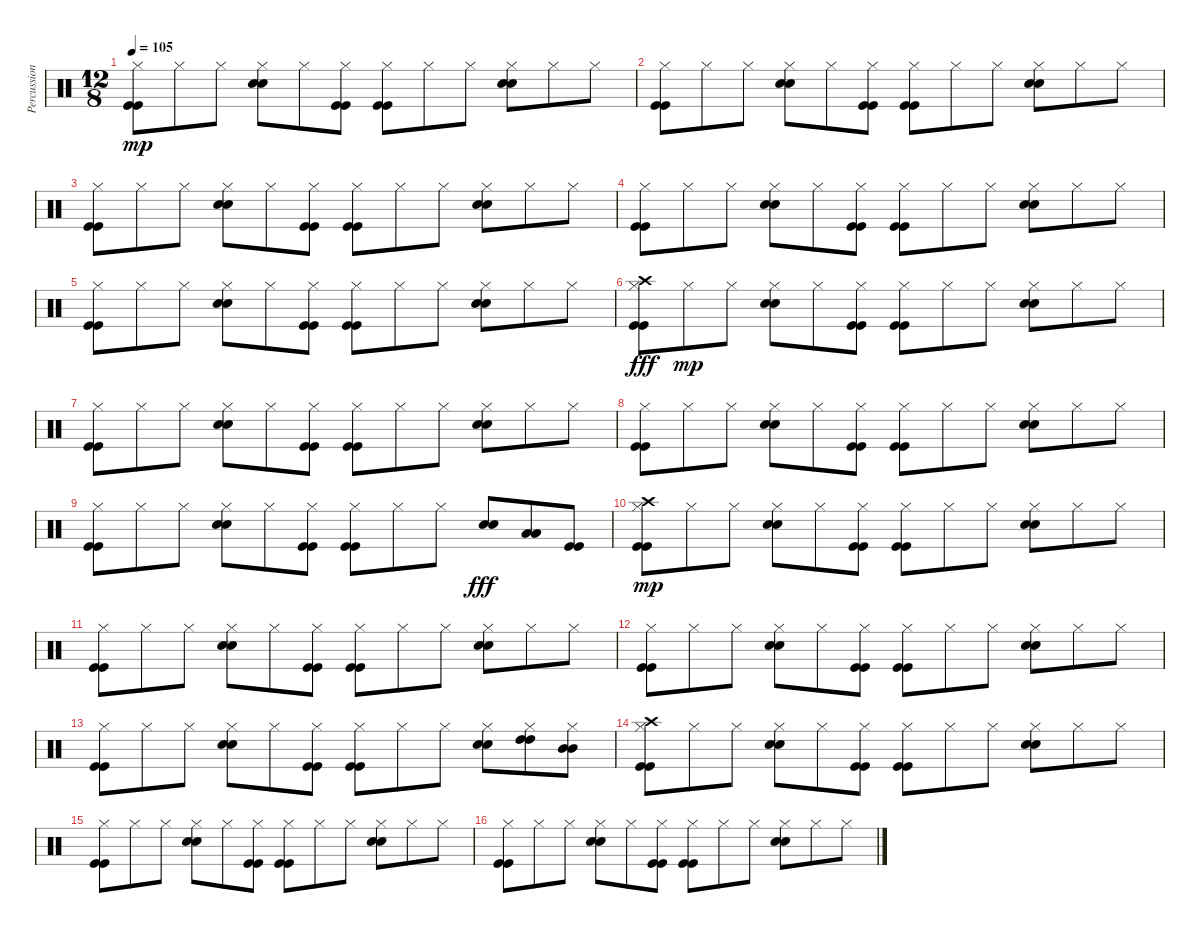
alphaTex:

\track ("Percussion" "Percussion") {instrument percussion}
\staff {score}
\articulation defaults
\ts (12 8)
\tempo 105
\clef neutral
\ks c
("Kick (hit)" "Kick (hit)" "Hi-Hat (closed)").8{dy mp} "Hi-Hat (closed)".8 "Hi-Hat (closed)".8 ("Snare (hit) 2" "Snare (hit) 2" "Hi-Hat (closed)").8 "Hi-Hat (closed)".8 ("Kick (hit)" "Kick (hit)" "Hi-Hat (closed)").8 ("Kick (hit)" "Kick (hit)" "Hi-Hat (closed)").8 "Hi-Hat (closed)".8 "Hi-Hat (closed)".8 ("Snare (hit) 2" "Snare (hit) 2" "Hi-Hat (closed)").8 "Hi-Hat (closed)".8 "Hi-Hat (closed)".8 |
("Kick (hit)" "Kick (hit)" "Hi-Hat (closed)").8 "Hi-Hat (closed)".8 "Hi-Hat (closed)".8 ("Snare (hit) 2" "Snare (hit) 2" "Hi-Hat (closed)").8 "Hi-Hat (closed)".8 ("Kick (hit)" "Kick (hit)" "Hi-Hat (closed)").8 ("Kick (hit)" "Kick (hit)" "Hi-Hat (closed)").8 "Hi-Hat (closed)".8 "Hi-Hat (closed)".8 ("Snare (hit) 2" "Snare (hit) 2" "Hi-Hat (closed)").8 "Hi-Hat (closed)".8 "Hi-Hat (closed)".8 |
("Kick (hit)" "Kick (hit)" "Hi-Hat (closed)").8 "Hi-Hat (closed)".8 "Hi-Hat (closed)".8 ("Snare (hit) 2" "Snare (hit) 2" "Hi-Hat (closed)").8 "Hi-Hat (closed)".8 ("Kick (hit)" "Kick (hit)" "Hi-Hat (closed)").8 ("Kick (hit)" "Kick (hit)" "Hi-Hat (closed)").8 "Hi-Hat (closed)".8 "Hi-Hat (closed)".8 ("Snare (hit) 2" "Snare (hit) 2" "Hi-Hat (closed)").8 "Hi-Hat (closed)".8 "Hi-Hat (closed)".8 |
("Kick (hit)" "Kick (hit)" "Hi-Hat (closed)").8 "Hi-Hat (closed)".8 "Hi-Hat (closed)".8 ("Snare (hit) 2" "Snare (hit) 2" "Hi-Hat (closed)").8 "Hi-Hat (closed)".8 ("Kick (hit)" "Kick (hit)" "Hi-Hat (closed)").8 ("Kick (hit)" "Kick (hit)" "Hi-Hat (closed)").8 "Hi-Hat (closed)".8 "Hi-Hat (closed)".8 ("Snare (hit) 2" "Snare (hit) 2" "Hi-Hat (closed)").8 "Hi-Hat (closed)".8 "Hi-Hat (closed)".8 |
("Kick (hit)" "Kick (hit)" "Hi-Hat (closed)").8 "Hi-Hat (closed)".8 "Hi-Hat (closed)".8 ("Snare (hit) 2" "Snare (hit) 2" "Hi-Hat (closed)").8 "Hi-Hat (closed)".8 ("Kick (hit)" "Kick (hit)" "Hi-Hat (closed)").8 ("Kick (hit)" "Kick (hit)" "Hi-Hat (closed)").8 "Hi-Hat (closed)".8 "Hi-Hat (closed)".8 ("Snare (hit) 2" "Snare (hit) 2" "Hi-Hat (closed)").8 "Hi-Hat (closed)".8 "Hi-Hat (closed)".8 |
("Kick (hit)" "Kick (hit)" "Hi-Hat (closed)" "Crash high (hit)").8{dy fff} "Hi-Hat (closed)".8{dy mp} "Hi-Hat (closed)".8 ("Snare (hit) 2" "Snare (hit) 2" "Hi-Hat (closed)").8 "Hi-Hat (closed)".8 ("Kick (hit)" "Kick (hit)" "Hi-Hat (closed)").8 ("Kick (hit)" "Kick (hit)" "Hi-Hat (closed)").8 "Hi-Hat (closed)".8 "Hi-Hat (closed)".8 ("Snare (hit) 2" "Snare (hit) 2" "Hi-Hat (closed)").8 "Hi-Hat (closed)".8 "Hi-Hat (closed)".8 |
("Kick (hit)" "Kick (hit)" "Hi-Hat (closed)").8 "Hi-Hat (closed)".8 "Hi-Hat (closed)".8 ("Snare (hit) 2" "Snare (hit) 2" "Hi-Hat (closed)").8 "Hi-Hat (closed)".8 ("Kick (hit)" "Kick (hit)" "Hi-Hat (closed)").8 ("Kick (hit)" "Kick (hit)" "Hi-Hat (closed)").8 "Hi-Hat (closed)".8 "Hi-Hat (closed)".8 ("Snare (hit) 2" "Snare (hit) 2" "Hi-Hat (closed)").8 "Hi-Hat (closed)".8 "Hi-Hat (closed)".8 |
("Kick (hit)" "Kick (hit)" "Hi-Hat (closed)").8 "Hi-Hat (closed)".8 "Hi-Hat (closed)".8 ("Snare (hit) 2" "Snare (hit) 2" "Hi-Hat (closed)").8 "Hi-Hat (closed)".8 ("Kick (hit)" "Kick (hit)" "Hi-Hat (closed)").8 ("Kick (hit)" "Kick (hit)" "Hi-Hat (closed)").8 "Hi-Hat (closed)".8 "Hi-Hat (closed)".8 ("Snare (hit) 2" "Snare (hit) 2" "Hi-Hat (closed)").8 "Hi-Hat (closed)".8 "Hi-Hat (closed)".8 |
("Kick (hit)" "Kick (hit)" "Hi-Hat (closed)").8 "Hi-Hat (closed)".8 "Hi-Hat (closed)".8 ("Snare (hit) 2" "Snare (hit) 2" "Hi-Hat (closed)").8 "Hi-Hat (closed)".8 ("Kick (hit)" "Kick (hit)" "Hi-Hat (closed)").8 ("Kick (hit)" "Kick (hit)" "Hi-Hat (closed)").8 "Hi-Hat (closed)".8 "Hi-Hat (closed)".8 ("Snare (hit) 2" "Snare (hit) 2").8{dy fff} ("Low Tom (hit)" "Low Tom (hit)").8 ("Kick (hit)" "Kick (hit)").8 |
("Kick (hit)" "Crash high (hit)" "Kick (hit)" "Hi-Hat (closed)").8{dy mp} "Hi-Hat (closed)".8 "Hi-Hat (closed)".8 ("Snare (hit) 2" "Snare (hit) 2" "Hi-Hat (closed)").8 "Hi-Hat (closed)".8 ("Kick (hit)" "Kick (hit)" "Hi-Hat (closed)").8 ("Kick (hit)" "Kick (hit)" "Hi-Hat (closed)").8 "Hi-Hat (closed)".8 "Hi-Hat (closed)".8 ("Snare (hit) 2" "Snare (hit) 2" "Hi-Hat (closed)").8 "Hi-Hat (closed)".8 "Hi-Hat (closed)".8 |
("Kick (hit)" "Kick (hit)" "Hi-Hat (closed)").8 "Hi-Hat (closed)".8 "Hi-Hat (closed)".8 ("Snare (hit) 2" "Snare (hit) 2" "Hi-Hat (closed)").8 "Hi-Hat (closed)".8 ("Kick (hit)" "Kick (hit)" "Hi-Hat (closed)").8 ("Kick (hit)" "Kick (hit)" "Hi-Hat (closed)").8 "Hi-Hat (closed)".8 "Hi-Hat (closed)".8 ("Snare (hit) 2" "Snare (hit) 2" "Hi-Hat (closed)").8 "Hi-Hat (closed)".8 "Hi-Hat (closed)".8 |
("Kick (hit)" "Kick (hit)" "Hi-Hat (closed)").8 "Hi-Hat (closed)".8 "Hi-Hat (closed)".8 ("Snare (hit) 2" "Snare (hit) 2" "Hi-Hat (closed)").8 "Hi-Hat (closed)".8 ("Kick (hit)" "Kick (hit)" "Hi-Hat (closed)").8 ("Kick (hit)" "Kick (hit)" "Hi-Hat (closed)").8 "Hi-Hat (closed)".8 "Hi-Hat (closed)".8 ("Snare (hit) 2" "Snare (hit) 2" "Hi-Hat (closed)").8 "Hi-Hat (closed)".8 "Hi-Hat (closed)".8 |
("Kick (hit)" "Kick (hit)" "Hi-Hat (closed)").8 "Hi-Hat (closed)".8 "Hi-Hat (closed)".8 ("Snare (hit) 2" "Snare (hit) 2" "Hi-Hat (closed)").8 "Hi-Hat (closed)".8 ("Kick (hit)" "Kick (hit)" "Hi-Hat (closed)").8 ("Kick (hit)" "Kick (hit)" "Hi-Hat (closed)").8 "Hi-Hat (closed)".8 "Hi-Hat (closed)".8 ("Snare (hit) 2" "Snare (hit) 2" "Hi-Hat (closed)").8 ("High Tom (hit)" "High Tom (hit)" "Hi-Hat (closed)").8 ("Mid Tom (hit)" "Mid Tom (hit)" "Hi-Hat (closed)").8 |
("Kick (hit)" "Crash high (hit)" "Kick (hit)" "Hi-Hat (closed)").8 "Hi-Hat (closed)".8 "Hi-Hat (closed)".8 ("Snare (hit) 2" "Snare (hit) 2" "Hi-Hat (closed)").8 "Hi-Hat (closed)".8 ("Kick (hit)" "Kick (hit)" "Hi-Hat (closed)").8 ("Kick (hit)" "Kick (hit)" "Hi-Hat (closed)").8 "Hi-Hat (closed)".8 "Hi-Hat (closed)".8 ("Snare (hit) 2" "Snare (hit) 2" "Hi-Hat (closed)").8 "Hi-Hat (closed)".8 "Hi-Hat (closed)".8 |
("Kick (hit)" "Kick (hit)" "Hi-Hat (closed)").8 "Hi-Hat (closed)".8 "Hi-Hat (closed)".8 ("Snare (hit) 2" "Snare (hit) 2" "Hi-Hat (closed)").8 "Hi-Hat (closed)".8 ("Kick (hit)" "Kick (hit)" "Hi-Hat (closed)").8 ("Kick (hit)" "Kick (hit)" "Hi-Hat (closed)").8 "Hi-Hat (closed)".8 "Hi-Hat (closed)".8 ("Snare (hit) 2" "Snare (hit) 2" "Hi-Hat (closed)").8 "Hi-Hat (closed)".8 "Hi-Hat (closed)".8 |
("Kick (hit)" "Kick (hit)" "Hi-Hat (closed)").8 "Hi-Hat (closed)".8 "Hi-Hat (closed)".8 ("Snare (hit) 2" "Snare (hit) 2" "Hi-Hat (closed)").8 "Hi-Hat (closed)".8 ("Kick (hit)" "Kick (hit)" "Hi-Hat (closed)").8 ("Kick (hit)" "Kick (hit)" "Hi-Hat (closed)").8 "Hi-Hat (closed)".8 "Hi-Hat (closed)".8 ("Snare (hit) 2" "Snare (hit) 2" "Hi-Hat (closed)").8 "Hi-Hat (closed)".8 "Hi-Hat (closed)".8
